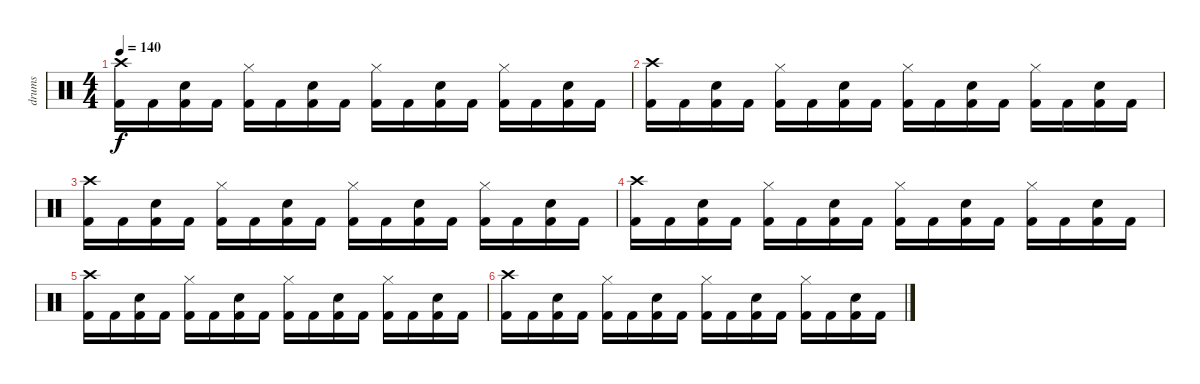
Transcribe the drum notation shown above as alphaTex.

\track ("drums" "drums") {instrument percussion}
\staff {score}
\articulation defaults
\ts (4 4)
\tempo 140
\clef neutral
\ks c
("Crash high (hit)" "Kick (hit) 2").16{dy f} "Kick (hit) 2".16 ("Electric Snare (hit)" "Kick (hit) 2").16 "Kick (hit) 2".16 ("Hi-Hat (closed)" "Kick (hit) 2").16 "Kick (hit) 2".16 ("Electric Snare (hit)" "Kick (hit) 2").16 "Kick (hit) 2".16 ("Hi-Hat (closed)" "Kick (hit) 2").16 "Kick (hit) 2".16 ("Electric Snare (hit)" "Kick (hit) 2").16 "Kick (hit) 2".16 ("Hi-Hat (closed)" "Kick (hit) 2").16 "Kick (hit) 2".16 ("Electric Snare (hit)" "Kick (hit) 2").16 "Kick (hit) 2".16 |
("Crash high (hit)" "Kick (hit) 2").16 "Kick (hit) 2".16 ("Electric Snare (hit)" "Kick (hit) 2").16 "Kick (hit) 2".16 ("Hi-Hat (closed)" "Kick (hit) 2").16 "Kick (hit) 2".16 ("Electric Snare (hit)" "Kick (hit) 2").16 "Kick (hit) 2".16 ("Hi-Hat (closed)" "Kick (hit) 2").16 "Kick (hit) 2".16 ("Electric Snare (hit)" "Kick (hit) 2").16 "Kick (hit) 2".16 ("Hi-Hat (closed)" "Kick (hit) 2").16 "Kick (hit) 2".16 ("Electric Snare (hit)" "Kick (hit) 2").16 "Kick (hit) 2".16 |
("Crash high (hit)" "Kick (hit) 2").16 "Kick (hit) 2".16 ("Electric Snare (hit)" "Kick (hit) 2").16 "Kick (hit) 2".16 ("Hi-Hat (closed)" "Kick (hit) 2").16 "Kick (hit) 2".16 ("Electric Snare (hit)" "Kick (hit) 2").16 "Kick (hit) 2".16 ("Hi-Hat (closed)" "Kick (hit) 2").16 "Kick (hit) 2".16 ("Electric Snare (hit)" "Kick (hit) 2").16 "Kick (hit) 2".16 ("Hi-Hat (closed)" "Kick (hit) 2").16 "Kick (hit) 2".16 ("Electric Snare (hit)" "Kick (hit) 2").16 "Kick (hit) 2".16 |
("Crash high (hit)" "Kick (hit) 2").16 "Kick (hit) 2".16 ("Electric Snare (hit)" "Kick (hit) 2").16 "Kick (hit) 2".16 ("Hi-Hat (closed)" "Kick (hit) 2").16 "Kick (hit) 2".16 ("Electric Snare (hit)" "Kick (hit) 2").16 "Kick (hit) 2".16 ("Hi-Hat (closed)" "Kick (hit) 2").16 "Kick (hit) 2".16 ("Electric Snare (hit)" "Kick (hit) 2").16 "Kick (hit) 2".16 ("Hi-Hat (closed)" "Kick (hit) 2").16 "Kick (hit) 2".16 ("Electric Snare (hit)" "Kick (hit) 2").16 "Kick (hit) 2".16 |
("Crash high (hit)" "Kick (hit) 2").16{volume 9} "Kick (hit) 2".16 ("Electric Snare (hit)" "Kick (hit) 2").16 "Kick (hit) 2".16 ("Hi-Hat (closed)" "Kick (hit) 2").16 "Kick (hit) 2".16 ("Electric Snare (hit)" "Kick (hit) 2").16 "Kick (hit) 2".16 ("Hi-Hat (closed)" "Kick (hit) 2").16 "Kick (hit) 2".16 ("Electric Snare (hit)" "Kick (hit) 2").16 "Kick (hit) 2".16 ("Hi-Hat (closed)" "Kick (hit) 2").16 "Kick (hit) 2".16 ("Electric Snare (hit)" "Kick (hit) 2").16 "Kick (hit) 2".16 |
("Crash high (hit)" "Kick (hit) 2").16{volume 0} "Kick (hit) 2".16 ("Electric Snare (hit)" "Kick (hit) 2").16 "Kick (hit) 2".16 ("Hi-Hat (closed)" "Kick (hit) 2").16 "Kick (hit) 2".16 ("Electric Snare (hit)" "Kick (hit) 2").16 "Kick (hit) 2".16 ("Hi-Hat (closed)" "Kick (hit) 2").16 "Kick (hit) 2".16 ("Electric Snare (hit)" "Kick (hit) 2").16 "Kick (hit) 2".16 ("Hi-Hat (closed)" "Kick (hit) 2").16 "Kick (hit) 2".16 ("Electric Snare (hit)" "Kick (hit) 2").16 "Kick (hit) 2".16
